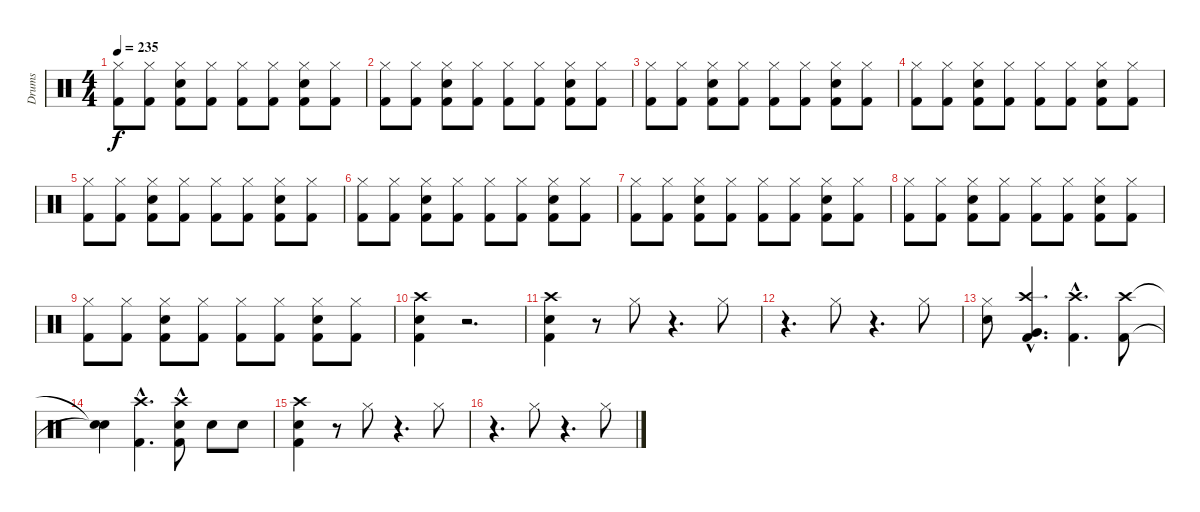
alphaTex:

\track ("Drums" "Drums") {instrument percussion}
\staff {score}
\articulation defaults
\ts (4 4)
\tempo 235
\clef neutral
\ks c
("Kick (hit) 2" "Hi-Hat (closed)").8{dy f} ("Kick (hit) 2" "Hi-Hat (closed)").8 ("Kick (hit) 2" "Snare (hit) 2" "Hi-Hat (closed)").8 ("Kick (hit) 2" "Hi-Hat (closed)").8 ("Kick (hit) 2" "Hi-Hat (closed)").8 ("Kick (hit) 2" "Hi-Hat (closed)").8 ("Kick (hit) 2" "Hi-Hat (closed)" "Snare (hit) 2").8 ("Kick (hit) 2" "Hi-Hat (closed)").8 |
("Kick (hit) 2" "Hi-Hat (closed)").8 ("Kick (hit) 2" "Hi-Hat (closed)").8 ("Kick (hit) 2" "Snare (hit) 2" "Hi-Hat (closed)").8 ("Kick (hit) 2" "Hi-Hat (closed)").8 ("Kick (hit) 2" "Hi-Hat (closed)").8 ("Kick (hit) 2" "Hi-Hat (closed)").8 ("Kick (hit) 2" "Hi-Hat (closed)" "Snare (hit) 2").8 ("Kick (hit) 2" "Hi-Hat (closed)").8 |
("Kick (hit) 2" "Hi-Hat (closed)").8 ("Kick (hit) 2" "Hi-Hat (closed)").8 ("Kick (hit) 2" "Snare (hit) 2" "Hi-Hat (closed)").8 ("Kick (hit) 2" "Hi-Hat (closed)").8 ("Kick (hit) 2" "Hi-Hat (closed)").8 ("Kick (hit) 2" "Hi-Hat (closed)").8 ("Kick (hit) 2" "Hi-Hat (closed)" "Snare (hit) 2").8 ("Kick (hit) 2" "Hi-Hat (closed)").8 |
("Kick (hit) 2" "Hi-Hat (closed)").8 ("Kick (hit) 2" "Hi-Hat (closed)").8 ("Kick (hit) 2" "Snare (hit) 2" "Hi-Hat (closed)").8 ("Kick (hit) 2" "Hi-Hat (closed)").8 ("Kick (hit) 2" "Hi-Hat (closed)").8 ("Kick (hit) 2" "Hi-Hat (closed)").8 ("Kick (hit) 2" "Hi-Hat (closed)" "Snare (hit) 2").8 ("Kick (hit) 2" "Hi-Hat (closed)").8 |
("Kick (hit) 2" "Hi-Hat (closed)").8 ("Kick (hit) 2" "Hi-Hat (closed)").8 ("Kick (hit) 2" "Snare (hit) 2" "Hi-Hat (closed)").8 ("Kick (hit) 2" "Hi-Hat (closed)").8 ("Kick (hit) 2" "Hi-Hat (closed)").8 ("Kick (hit) 2" "Hi-Hat (closed)").8 ("Kick (hit) 2" "Hi-Hat (closed)" "Snare (hit) 2").8 ("Kick (hit) 2" "Hi-Hat (closed)").8 |
("Kick (hit) 2" "Hi-Hat (closed)").8 ("Kick (hit) 2" "Hi-Hat (closed)").8 ("Kick (hit) 2" "Snare (hit) 2" "Hi-Hat (closed)").8 ("Kick (hit) 2" "Hi-Hat (closed)").8 ("Kick (hit) 2" "Hi-Hat (closed)").8 ("Kick (hit) 2" "Hi-Hat (closed)").8 ("Kick (hit) 2" "Hi-Hat (closed)" "Snare (hit) 2").8 ("Kick (hit) 2" "Hi-Hat (closed)").8 |
("Kick (hit) 2" "Hi-Hat (closed)").8 ("Kick (hit) 2" "Hi-Hat (closed)").8 ("Kick (hit) 2" "Snare (hit) 2" "Hi-Hat (closed)").8 ("Kick (hit) 2" "Hi-Hat (closed)").8 ("Kick (hit) 2" "Hi-Hat (closed)").8 ("Kick (hit) 2" "Hi-Hat (closed)").8 ("Kick (hit) 2" "Hi-Hat (closed)" "Snare (hit) 2").8 ("Kick (hit) 2" "Hi-Hat (closed)").8 |
("Kick (hit) 2" "Hi-Hat (closed)").8 ("Kick (hit) 2" "Hi-Hat (closed)").8 ("Kick (hit) 2" "Snare (hit) 2" "Hi-Hat (closed)").8 ("Kick (hit) 2" "Hi-Hat (closed)").8 ("Kick (hit) 2" "Hi-Hat (closed)").8 ("Kick (hit) 2" "Hi-Hat (closed)").8 ("Kick (hit) 2" "Hi-Hat (closed)" "Snare (hit) 2").8 ("Kick (hit) 2" "Hi-Hat (closed)").8 |
("Kick (hit) 2" "Hi-Hat (closed)").8 ("Kick (hit) 2" "Hi-Hat (closed)").8 ("Kick (hit) 2" "Snare (hit) 2" "Hi-Hat (closed)").8 ("Kick (hit) 2" "Hi-Hat (closed)").8 ("Kick (hit) 2" "Hi-Hat (closed)").8 ("Kick (hit) 2" "Hi-Hat (closed)").8 ("Kick (hit) 2" "Hi-Hat (closed)" "Snare (hit) 2").8 ("Kick (hit) 2" "Hi-Hat (closed)").8 |
("Kick (hit) 2" "Snare (hit) 2" "Crash high (hit)").4 r.2{d} |
("Crash high (hit)" "Kick (hit) 2" "Snare (hit) 2").4 r.8 "Hi-Hat (closed)".8 r.4{d} "Hi-Hat (closed)".8 |
r.4{d} "Hi-Hat (closed)".8 r.4{d} "Hi-Hat (closed)".8 |
("Hi-Hat (closed)" "Snare (hit) 2").8 ("Kick (hit) 2"{hac} "Crash high (hit)"{hac} "Very Low Tom (hit)").4{d} ("Kick (hit) 2"{hac} "Crash high (hit)"{hac}).4{d} ("Kick (hit) 2" "Crash high (hit)").8 |
("Snare (hit)"{t} "Snare (hit)"{t}).4 ("Kick (hit) 2"{hac} "Crash high (hit)"{hac}).4{d} ("Kick (hit) 2"{hac} "Crash high (hit)"{hac} "Snare (hit) 2").8 "Snare (hit) 2".8 "Snare (hit) 2".8 |
("Crash high (hit)" "Kick (hit) 2" "Snare (hit) 2").4 r.8 "Hi-Hat (closed)".8 r.4{d} "Hi-Hat (closed)".8 |
r.4{d} "Hi-Hat (closed)".8 r.4{d} "Hi-Hat (closed)".8
